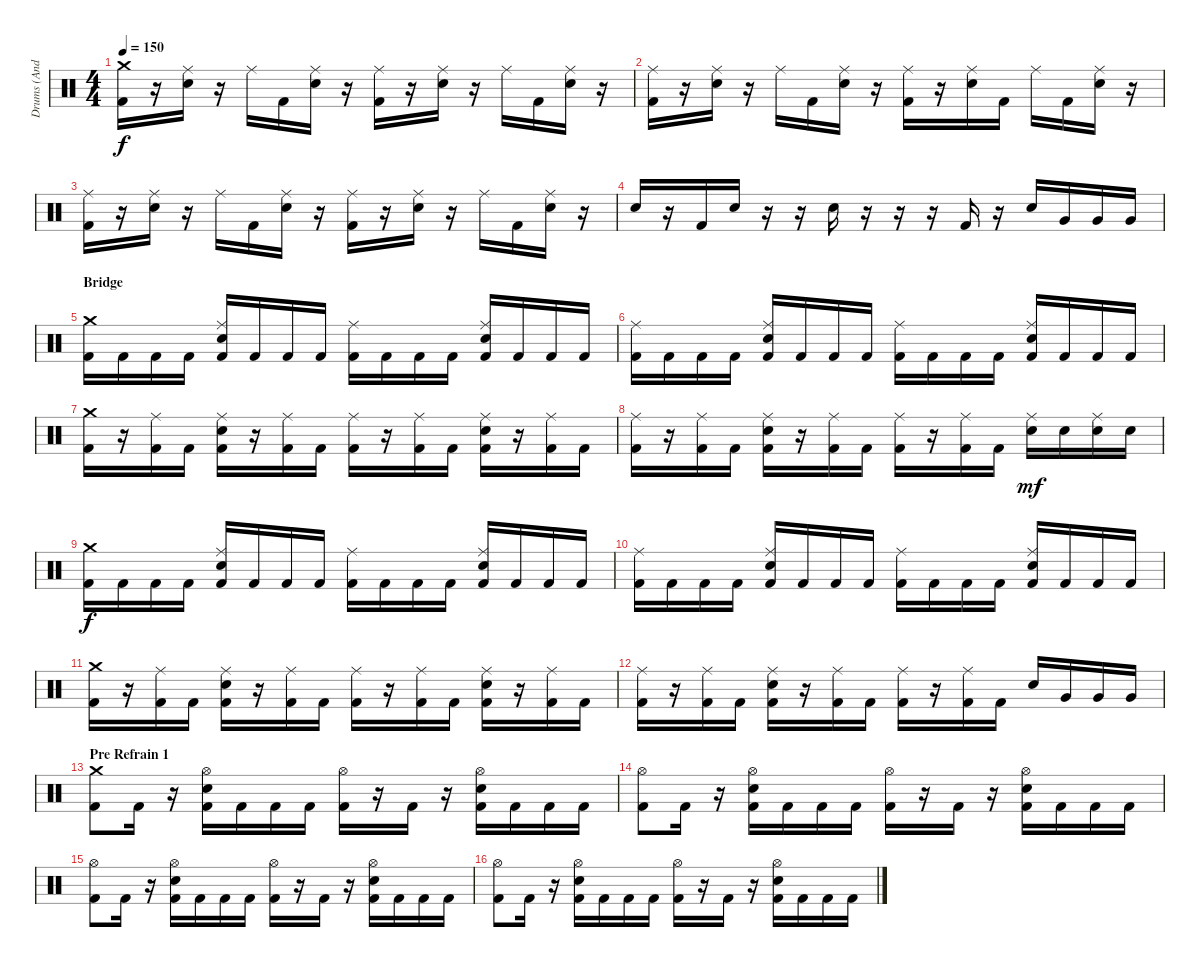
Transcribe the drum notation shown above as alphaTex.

\track ("Drums (Andy C)" "Drums (And") {instrument percussion}
\staff {score}
\articulation defaults
\ts (4 4)
\tempo 150
\clef neutral
\ks c
("Crash medium (hit)" "Kick (hit) 2").16{dy f} r.16 ("Ride (middle)" "Electric Snare (hit)").16 r.16 "Ride (middle)".16 "Kick (hit) 2".16 ("Ride (middle)" "Electric Snare (hit)").16 r.16 ("Ride (middle)" "Kick (hit) 2").16 r.16 ("Ride (middle)" "Electric Snare (hit)").16 r.16 "Ride (middle)".16 "Kick (hit) 2".16 ("Ride (middle)" "Electric Snare (hit)").16 r.16 |
("Ride (middle)" "Kick (hit) 2").16 r.16 ("Ride (middle)" "Electric Snare (hit)").16 r.16 "Ride (middle)".16 "Kick (hit) 2".16 ("Ride (middle)" "Electric Snare (hit)").16 r.16 ("Ride (middle)" "Kick (hit) 2").16 r.16 ("Ride (middle)" "Electric Snare (hit)").16 "Kick (hit) 2".16 "Ride (middle)".16 "Kick (hit) 2".16 ("Ride (middle)" "Electric Snare (hit)").16 r.16 |
("Ride (middle)" "Kick (hit) 2").16 r.16 ("Ride (middle)" "Electric Snare (hit)").16 r.16 "Ride (middle)".16 "Kick (hit) 2".16 ("Ride (middle)" "Electric Snare (hit)").16 r.16 ("Ride (middle)" "Kick (hit) 2").16 r.16 ("Ride (middle)" "Electric Snare (hit)").16 r.16 "Ride (middle)".16 "Kick (hit) 2".16 ("Ride (middle)" "Electric Snare (hit)").16 r.16 |
"Electric Snare (hit)".16 r.16 "Kick (hit) 2".16 "Electric Snare (hit)".16 r.16 r.16 "Electric Snare (hit)".16 r.16 r.16 r.16 "Kick (hit) 2".16 r.16 "Electric Snare (hit)".16 "Very Low Tom (hit)".16 "Very Low Tom (hit)".16 "Very Low Tom (hit)".16 |
\section ("" "Bridge")
("Crash medium (hit)" "Kick (hit) 2").16 "Kick (hit) 2".16 "Kick (hit) 2".16 "Kick (hit) 2".16 ("Ride (middle)" "Kick (hit) 2" "Electric Snare (hit)").16 "Kick (hit) 2".16 "Kick (hit) 2".16 "Kick (hit) 2".16 ("Ride (middle)" "Kick (hit) 2").16 "Kick (hit) 2".16 "Kick (hit) 2".16 "Kick (hit) 2".16 ("Ride (middle)" "Kick (hit) 2" "Electric Snare (hit)").16 "Kick (hit) 2".16 "Kick (hit) 2".16 "Kick (hit) 2".16 |
("Ride (middle)" "Kick (hit) 2").16 "Kick (hit) 2".16 "Kick (hit) 2".16 "Kick (hit) 2".16 ("Ride (middle)" "Kick (hit) 2" "Electric Snare (hit)").16 "Kick (hit) 2".16 "Kick (hit) 2".16 "Kick (hit) 2".16 ("Ride (middle)" "Kick (hit) 2").16 "Kick (hit) 2".16 "Kick (hit) 2".16 "Kick (hit) 2".16 ("Ride (middle)" "Kick (hit) 2" "Electric Snare (hit)").16 "Kick (hit) 2".16 "Kick (hit) 2".16 "Kick (hit) 2".16 |
("Crash medium (hit)" "Kick (hit) 2").16 r.16 ("Ride (middle)" "Kick (hit) 2").16 "Kick (hit) 2".16 ("Ride (middle)" "Kick (hit) 2" "Electric Snare (hit)").16 r.16 ("Ride (middle)" "Kick (hit) 2").16 "Kick (hit) 2".16 ("Ride (middle)" "Kick (hit) 2").16 r.16 ("Ride (middle)" "Kick (hit) 2").16 "Kick (hit) 2".16 ("Ride (middle)" "Kick (hit) 2" "Electric Snare (hit)").16 r.16 ("Ride (middle)" "Kick (hit) 2").16 "Kick (hit) 2".16 |
("Ride (middle)" "Kick (hit) 2").16 r.16 ("Ride (middle)" "Kick (hit) 2").16 "Kick (hit) 2".16 ("Ride (middle)" "Kick (hit) 2" "Electric Snare (hit)").16 r.16 ("Ride (middle)" "Kick (hit) 2").16 "Kick (hit) 2".16 ("Ride (middle)" "Kick (hit) 2").16 r.16 ("Ride (middle)" "Kick (hit) 2").16 "Kick (hit) 2".16 ("Ride (middle)" "Electric Snare (hit)").16{dy mf} "Electric Snare (hit)".16 ("Ride (middle)" "Electric Snare (hit)").16 "Electric Snare (hit)".16 |
("Crash medium (hit)" "Kick (hit) 2").16{dy f} "Kick (hit) 2".16 "Kick (hit) 2".16 "Kick (hit) 2".16 ("Ride (middle)" "Kick (hit) 2" "Electric Snare (hit)").16 "Kick (hit) 2".16 "Kick (hit) 2".16 "Kick (hit) 2".16 ("Ride (middle)" "Kick (hit) 2").16 "Kick (hit) 2".16 "Kick (hit) 2".16 "Kick (hit) 2".16 ("Ride (middle)" "Kick (hit) 2" "Electric Snare (hit)").16 "Kick (hit) 2".16 "Kick (hit) 2".16 "Kick (hit) 2".16 |
("Ride (middle)" "Kick (hit) 2").16 "Kick (hit) 2".16 "Kick (hit) 2".16 "Kick (hit) 2".16 ("Ride (middle)" "Kick (hit) 2" "Electric Snare (hit)").16 "Kick (hit) 2".16 "Kick (hit) 2".16 "Kick (hit) 2".16 ("Ride (middle)" "Kick (hit) 2").16 "Kick (hit) 2".16 "Kick (hit) 2".16 "Kick (hit) 2".16 ("Ride (middle)" "Kick (hit) 2" "Electric Snare (hit)").16 "Kick (hit) 2".16 "Kick (hit) 2".16 "Kick (hit) 2".16 |
("Crash medium (hit)" "Kick (hit) 2").16 r.16 ("Ride (middle)" "Kick (hit) 2").16 "Kick (hit) 2".16 ("Ride (middle)" "Kick (hit) 2" "Electric Snare (hit)").16 r.16 ("Ride (middle)" "Kick (hit) 2").16 "Kick (hit) 2".16 ("Ride (middle)" "Kick (hit) 2").16 r.16 ("Ride (middle)" "Kick (hit) 2").16 "Kick (hit) 2".16 ("Ride (middle)" "Kick (hit) 2" "Electric Snare (hit)").16 r.16 ("Ride (middle)" "Kick (hit) 2").16 "Kick (hit) 2".16 |
("Ride (middle)" "Kick (hit) 2").16 r.16 ("Ride (middle)" "Kick (hit) 2").16 "Kick (hit) 2".16 ("Ride (middle)" "Kick (hit) 2" "Electric Snare (hit)").16 r.16 ("Ride (middle)" "Kick (hit) 2").16 "Kick (hit) 2".16 ("Ride (middle)" "Kick (hit) 2").16 r.16 ("Ride (middle)" "Kick (hit) 2").16 "Kick (hit) 2".16 "Electric Snare (hit)".16 "Very Low Tom (hit)".16 "Very Low Tom (hit)".16 "Very Low Tom (hit)".16 |
\section ("" "Pre Refrain 1")
("Crash medium (hit)" "Kick (hit) 2").8 "Kick (hit) 2".16 r.16 ("Hi-Hat (open)" "Kick (hit) 2" "Electric Snare (hit)").16 "Kick (hit) 2".16 "Kick (hit) 2".16 "Kick (hit) 2".16 ("Hi-Hat (open)" "Kick (hit) 2").16 r.16 "Kick (hit) 2".16 r.16 ("Hi-Hat (open)" "Kick (hit) 2" "Electric Snare (hit)").16 "Kick (hit) 2".16 "Kick (hit) 2".16 "Kick (hit) 2".16 |
("Hi-Hat (open)" "Kick (hit) 2").8 "Kick (hit) 2".16 r.16 ("Hi-Hat (open)" "Kick (hit) 2" "Electric Snare (hit)").16 "Kick (hit) 2".16 "Kick (hit) 2".16 "Kick (hit) 2".16 ("Hi-Hat (open)" "Kick (hit) 2").16 r.16 "Kick (hit) 2".16 r.16 ("Hi-Hat (open)" "Kick (hit) 2" "Electric Snare (hit)").16 "Kick (hit) 2".16 "Kick (hit) 2".16 "Kick (hit) 2".16 |
("Hi-Hat (open)" "Kick (hit) 2").8 "Kick (hit) 2".16 r.16 ("Hi-Hat (open)" "Kick (hit) 2" "Electric Snare (hit)").16 "Kick (hit) 2".16 "Kick (hit) 2".16 "Kick (hit) 2".16 ("Hi-Hat (open)" "Kick (hit) 2").16 r.16 "Kick (hit) 2".16 r.16 ("Hi-Hat (open)" "Kick (hit) 2" "Electric Snare (hit)").16 "Kick (hit) 2".16 "Kick (hit) 2".16 "Kick (hit) 2".16 |
("Hi-Hat (open)" "Kick (hit) 2").8 "Kick (hit) 2".16 r.16 ("Hi-Hat (open)" "Kick (hit) 2" "Electric Snare (hit)").16 "Kick (hit) 2".16 "Kick (hit) 2".16 "Kick (hit) 2".16 ("Hi-Hat (open)" "Kick (hit) 2").16 r.16 "Kick (hit) 2".16 r.16 ("Hi-Hat (open)" "Kick (hit) 2" "Electric Snare (hit)").16 "Kick (hit) 2".16 "Kick (hit) 2".16 "Kick (hit) 2".16
